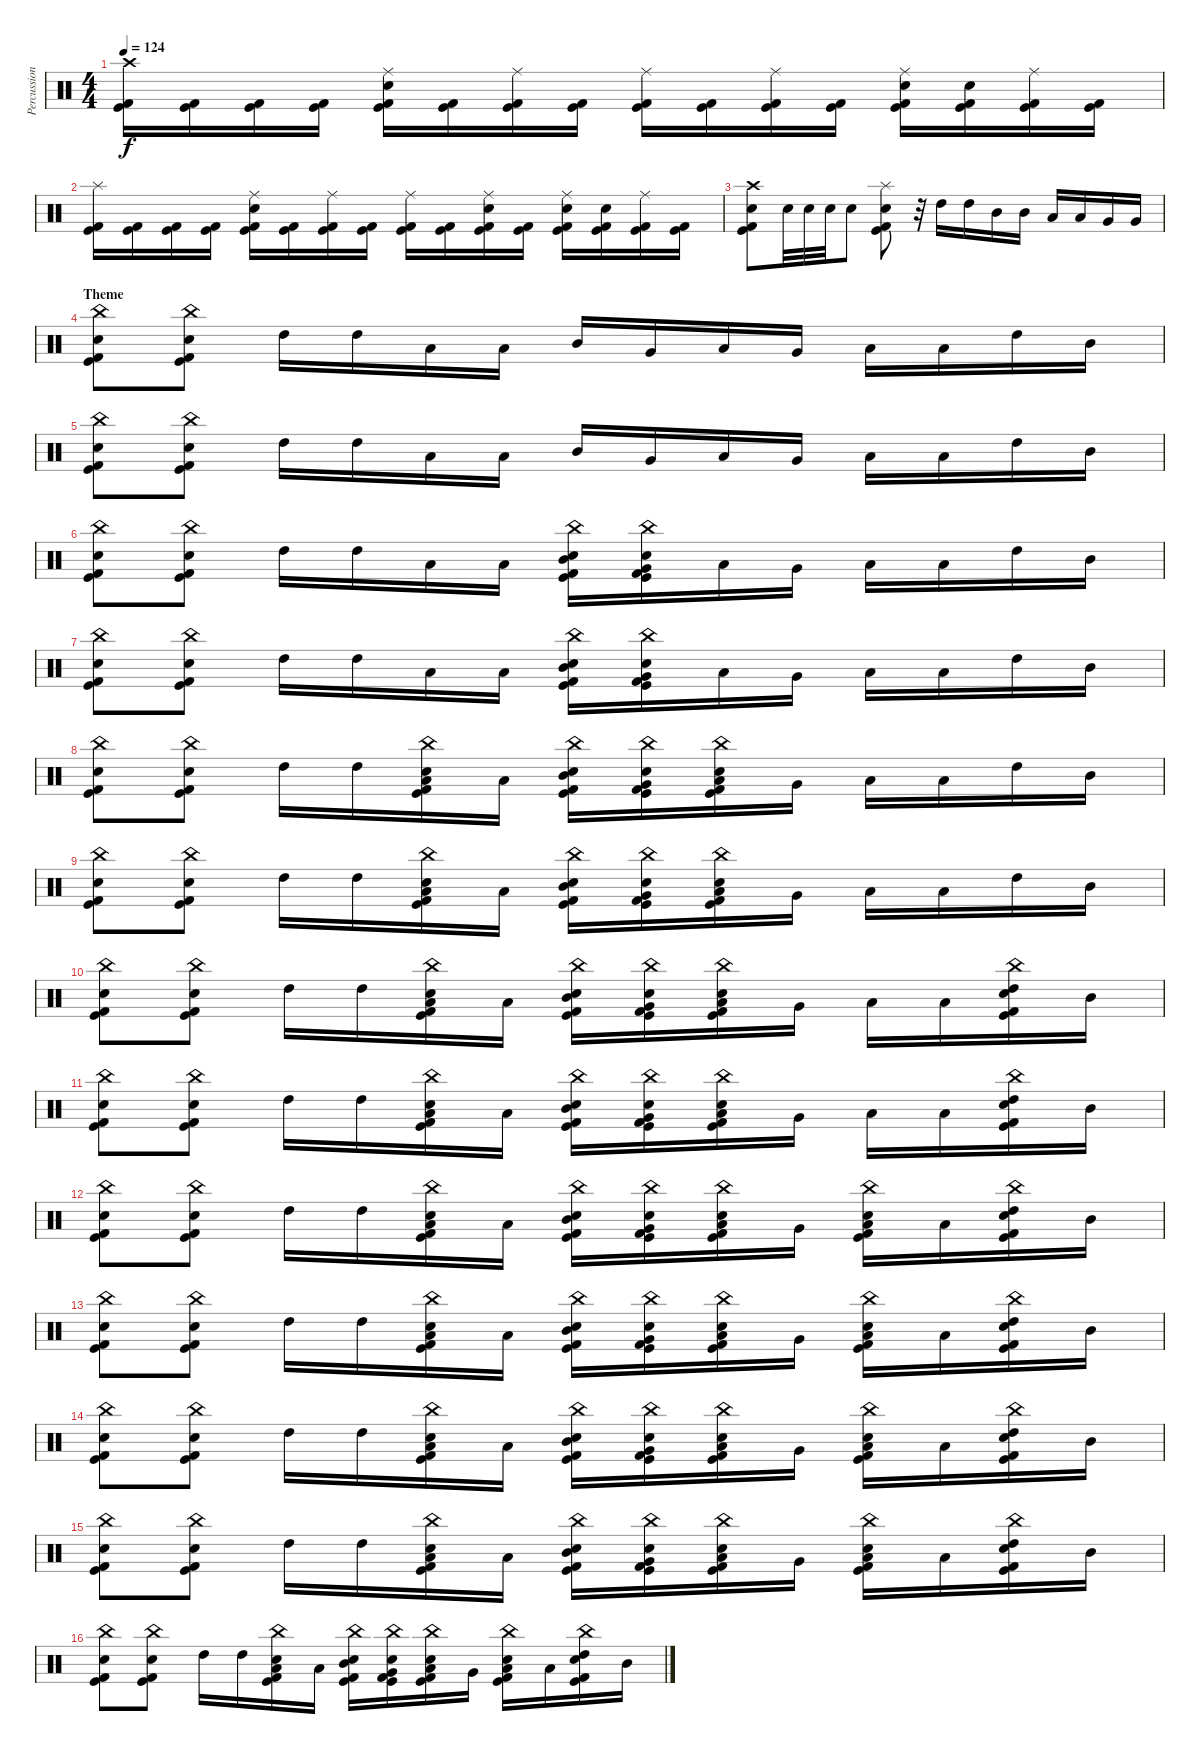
\track ("Percussion" "Percussion") {instrument percussion}
\staff {score}
\articulation defaults
\ts (4 4)
\tempo 124
\clef neutral
\ks c
("Crash high (hit)" "Kick (hit) 2" "Kick (hit)").16{dy f} ("Kick (hit) 2" "Kick (hit)").16 ("Kick (hit) 2" "Kick (hit)").16 ("Kick (hit) 2" "Kick (hit)").16 ("Ride (middle)" "Snare (hit) 2" "Kick (hit) 2" "Kick (hit)").16 ("Kick (hit) 2" "Kick (hit)").16 ("Ride (middle)" "Kick (hit) 2" "Kick (hit)").16 ("Kick (hit) 2" "Kick (hit)").16 ("Ride (middle)" "Kick (hit) 2" "Kick (hit)").16 ("Kick (hit) 2" "Kick (hit)").16 ("Ride (middle)" "Kick (hit) 2" "Kick (hit)").16 ("Kick (hit) 2" "Kick (hit)").16 ("Ride (middle)" "Snare (hit) 2" "Kick (hit) 2" "Kick (hit)").16 ("Snare (hit) 2" "Kick (hit) 2" "Kick (hit)").16 ("Ride (middle)" "Kick (hit) 2" "Kick (hit)").16 ("Kick (hit) 2" "Kick (hit)").16 |
("Splash (hit)" "Kick (hit) 2" "Kick (hit)").16 ("Kick (hit) 2" "Kick (hit)").16 ("Kick (hit) 2" "Kick (hit)").16 ("Kick (hit) 2" "Kick (hit)").16 ("Ride (middle)" "Snare (hit) 2" "Kick (hit) 2" "Kick (hit)").16 ("Kick (hit) 2" "Kick (hit)").16 ("Ride (middle)" "Kick (hit) 2" "Kick (hit)").16 ("Kick (hit) 2" "Kick (hit)").16 ("Ride (middle)" "Kick (hit) 2" "Kick (hit)").16 ("Kick (hit) 2" "Kick (hit)").16 ("Ride (middle)" "Snare (hit) 2" "Kick (hit) 2" "Kick (hit)").16 ("Kick (hit) 2" "Kick (hit)").16 ("Ride (middle)" "Snare (hit) 2" "Kick (hit) 2" "Kick (hit)").16 ("Snare (hit) 2" "Kick (hit) 2" "Kick (hit)").16 ("Ride (middle)" "Kick (hit) 2" "Kick (hit)").16 ("Kick (hit) 2" "Kick (hit)").16 |
("Crash high (hit)" "Snare (hit) 2" "Kick (hit) 2" "Kick (hit)").8 "Snare (hit) 2".32 "Snare (hit) 2".32 "Snare (hit) 2".32 "Snare (hit) 2".8 ("Splash (hit)" "Snare (hit) 2" "Kick (hit) 2" "Kick (hit)").8 r.32 "High Tom (hit)".16 "High Tom (hit)".16 "Mid Tom (hit)".16 "Mid Tom (hit)".16 "Low Tom (hit)".16 "Low Tom (hit)".16 "Very Low Tom (hit)".16 "Very Low Tom (hit)".16 |
\section ("" "Theme")
("China (hit)" "Snare (hit) 2" "Kick (hit) 2" "Kick (hit)").8 ("China (hit)" "Snare (hit) 2" "Kick (hit) 2" "Kick (hit)").8 "High Tom (hit)".16 "High Tom (hit)".16 "Low Tom (hit)".16 "Low Tom (hit)".16 "Mid Tom (hit)".16 "Very Low Tom (hit)".16 "Low Floor Tom (hit)".16 "Very Low Tom (hit)".16 "Low Tom (hit)".16 "Low Tom (hit)".16 "High Tom (hit)".16 "Mid Tom (hit)".16 |
("China (hit)" "Snare (hit) 2" "Kick (hit) 2" "Kick (hit)").8 ("China (hit)" "Snare (hit) 2" "Kick (hit) 2" "Kick (hit)").8 "High Tom (hit)".16 "High Tom (hit)".16 "Low Tom (hit)".16 "Low Tom (hit)".16 "Mid Tom (hit)".16 "Very Low Tom (hit)".16 "Low Floor Tom (hit)".16 "Very Low Tom (hit)".16 "Low Tom (hit)".16 "Low Tom (hit)".16 "High Tom (hit)".16 "Mid Tom (hit)".16 |
("China (hit)" "Snare (hit) 2" "Kick (hit) 2" "Kick (hit)").8 ("China (hit)" "Snare (hit) 2" "Kick (hit) 2" "Kick (hit)").8 "High Tom (hit)".16 "High Tom (hit)".16 "Low Tom (hit)".16 "Low Tom (hit)".16 ("China (hit)" "Snare (hit) 2" "Mid Tom (hit)" "Kick (hit) 2" "Kick (hit)").16 ("China (hit)" "Snare (hit) 2" "Very Low Tom (hit)" "Kick (hit) 2" "Kick (hit)").16 "Low Floor Tom (hit)".16 "Very Low Tom (hit)".16 "Low Tom (hit)".16 "Low Tom (hit)".16 "High Tom (hit)".16 "Mid Tom (hit)".16 |
("China (hit)" "Snare (hit) 2" "Kick (hit) 2" "Kick (hit)").8 ("China (hit)" "Snare (hit) 2" "Kick (hit) 2" "Kick (hit)").8 "High Tom (hit)".16 "High Tom (hit)".16 "Low Tom (hit)".16 "Low Tom (hit)".16 ("China (hit)" "Snare (hit) 2" "Mid Tom (hit)" "Kick (hit) 2" "Kick (hit)").16 ("China (hit)" "Snare (hit) 2" "Very Low Tom (hit)" "Kick (hit) 2" "Kick (hit)").16 "Low Floor Tom (hit)".16 "Very Low Tom (hit)".16 "Low Tom (hit)".16 "Low Tom (hit)".16 "High Tom (hit)".16 "Mid Tom (hit)".16 |
("China (hit)" "Snare (hit) 2" "Kick (hit) 2" "Kick (hit)").8 ("China (hit)" "Snare (hit) 2" "Kick (hit) 2" "Kick (hit)").8 "High Tom (hit)".16 "High Tom (hit)".16 ("China (hit)" "Snare (hit) 2" "Low Tom (hit)" "Kick (hit) 2" "Kick (hit)").16 "Low Tom (hit)".16 ("China (hit)" "Snare (hit) 2" "Mid Tom (hit)" "Kick (hit) 2" "Kick (hit)").16 ("China (hit)" "Snare (hit) 2" "Very Low Tom (hit)" "Kick (hit) 2" "Kick (hit)").16 ("China (hit)" "Snare (hit) 2" "Low Floor Tom (hit)" "Kick (hit) 2" "Kick (hit)").16 "Very Low Tom (hit)".16 "Low Tom (hit)".16 "Low Tom (hit)".16 "High Tom (hit)".16 "Mid Tom (hit)".16 |
("China (hit)" "Snare (hit) 2" "Kick (hit) 2" "Kick (hit)").8 ("China (hit)" "Snare (hit) 2" "Kick (hit) 2" "Kick (hit)").8 "High Tom (hit)".16 "High Tom (hit)".16 ("China (hit)" "Snare (hit) 2" "Low Tom (hit)" "Kick (hit) 2" "Kick (hit)").16 "Low Tom (hit)".16 ("China (hit)" "Snare (hit) 2" "Mid Tom (hit)" "Kick (hit) 2" "Kick (hit)").16 ("China (hit)" "Snare (hit) 2" "Very Low Tom (hit)" "Kick (hit) 2" "Kick (hit)").16 ("China (hit)" "Snare (hit) 2" "Low Floor Tom (hit)" "Kick (hit) 2" "Kick (hit)").16 "Very Low Tom (hit)".16 "Low Tom (hit)".16 "Low Tom (hit)".16 "High Tom (hit)".16 "Mid Tom (hit)".16 |
("China (hit)" "Snare (hit) 2" "Kick (hit) 2" "Kick (hit)").8 ("China (hit)" "Snare (hit) 2" "Kick (hit) 2" "Kick (hit)").8 "High Tom (hit)".16 "High Tom (hit)".16 ("China (hit)" "Snare (hit) 2" "Low Tom (hit)" "Kick (hit) 2" "Kick (hit)").16 "Low Tom (hit)".16 ("China (hit)" "Snare (hit) 2" "Mid Tom (hit)" "Kick (hit) 2" "Kick (hit)").16 ("China (hit)" "Snare (hit) 2" "Very Low Tom (hit)" "Kick (hit) 2" "Kick (hit)").16 ("China (hit)" "Snare (hit) 2" "Low Floor Tom (hit)" "Kick (hit) 2" "Kick (hit)").16 "Very Low Tom (hit)".16 "Low Tom (hit)".16 "Low Tom (hit)".16 ("China (hit)" "Snare (hit) 2" "High Tom (hit)" "Kick (hit) 2" "Kick (hit)").16 "Mid Tom (hit)".16 |
("China (hit)" "Snare (hit) 2" "Kick (hit) 2" "Kick (hit)").8 ("China (hit)" "Snare (hit) 2" "Kick (hit) 2" "Kick (hit)").8 "High Tom (hit)".16 "High Tom (hit)".16 ("China (hit)" "Snare (hit) 2" "Low Tom (hit)" "Kick (hit) 2" "Kick (hit)").16 "Low Tom (hit)".16 ("China (hit)" "Snare (hit) 2" "Mid Tom (hit)" "Kick (hit) 2" "Kick (hit)").16 ("China (hit)" "Snare (hit) 2" "Very Low Tom (hit)" "Kick (hit) 2" "Kick (hit)").16 ("China (hit)" "Snare (hit) 2" "Low Floor Tom (hit)" "Kick (hit) 2" "Kick (hit)").16 "Very Low Tom (hit)".16 "Low Tom (hit)".16 "Low Tom (hit)".16 ("China (hit)" "Snare (hit) 2" "High Tom (hit)" "Kick (hit) 2" "Kick (hit)").16 "Mid Tom (hit)".16 |
("China (hit)" "Snare (hit) 2" "Kick (hit) 2" "Kick (hit)").8 ("China (hit)" "Snare (hit) 2" "Kick (hit) 2" "Kick (hit)").8 "High Tom (hit)".16 "High Tom (hit)".16 ("China (hit)" "Snare (hit) 2" "Low Tom (hit)" "Kick (hit) 2" "Kick (hit)").16 "Low Tom (hit)".16 ("China (hit)" "Snare (hit) 2" "Mid Tom (hit)" "Kick (hit) 2" "Kick (hit)").16 ("China (hit)" "Snare (hit) 2" "Very Low Tom (hit)" "Kick (hit) 2" "Kick (hit)").16 ("China (hit)" "Snare (hit) 2" "Low Floor Tom (hit)" "Kick (hit) 2" "Kick (hit)").16 "Very Low Tom (hit)".16 ("China (hit)" "Snare (hit) 2" "Low Tom (hit)" "Kick (hit) 2" "Kick (hit)").16 "Low Tom (hit)".16 ("China (hit)" "Snare (hit) 2" "High Tom (hit)" "Kick (hit) 2" "Kick (hit)").16 "Mid Tom (hit)".16 |
("China (hit)" "Snare (hit) 2" "Kick (hit) 2" "Kick (hit)").8 ("China (hit)" "Snare (hit) 2" "Kick (hit) 2" "Kick (hit)").8 "High Tom (hit)".16 "High Tom (hit)".16 ("China (hit)" "Snare (hit) 2" "Low Tom (hit)" "Kick (hit) 2" "Kick (hit)").16 "Low Tom (hit)".16 ("China (hit)" "Snare (hit) 2" "Mid Tom (hit)" "Kick (hit) 2" "Kick (hit)").16 ("China (hit)" "Snare (hit) 2" "Very Low Tom (hit)" "Kick (hit) 2" "Kick (hit)").16 ("China (hit)" "Snare (hit) 2" "Low Floor Tom (hit)" "Kick (hit) 2" "Kick (hit)").16 "Very Low Tom (hit)".16 ("China (hit)" "Snare (hit) 2" "Low Tom (hit)" "Kick (hit) 2" "Kick (hit)").16 "Low Tom (hit)".16 ("China (hit)" "Snare (hit) 2" "High Tom (hit)" "Kick (hit) 2" "Kick (hit)").16 "Mid Tom (hit)".16 |
("China (hit)" "Snare (hit) 2" "Kick (hit) 2" "Kick (hit)").8 ("China (hit)" "Snare (hit) 2" "Kick (hit) 2" "Kick (hit)").8 "High Tom (hit)".16 "High Tom (hit)".16 ("China (hit)" "Snare (hit) 2" "Low Tom (hit)" "Kick (hit) 2" "Kick (hit)").16 "Low Tom (hit)".16 ("China (hit)" "Snare (hit) 2" "Mid Tom (hit)" "Kick (hit) 2" "Kick (hit)").16 ("China (hit)" "Snare (hit) 2" "Very Low Tom (hit)" "Kick (hit) 2" "Kick (hit)").16 ("China (hit)" "Snare (hit) 2" "Low Floor Tom (hit)" "Kick (hit) 2" "Kick (hit)").16 "Very Low Tom (hit)".16 ("China (hit)" "Snare (hit) 2" "Low Tom (hit)" "Kick (hit) 2" "Kick (hit)").16 "Low Tom (hit)".16 ("China (hit)" "Snare (hit) 2" "High Tom (hit)" "Kick (hit) 2" "Kick (hit)").16 "Mid Tom (hit)".16 |
("China (hit)" "Snare (hit) 2" "Kick (hit) 2" "Kick (hit)").8 ("China (hit)" "Snare (hit) 2" "Kick (hit) 2" "Kick (hit)").8 "High Tom (hit)".16 "High Tom (hit)".16 ("China (hit)" "Snare (hit) 2" "Low Tom (hit)" "Kick (hit) 2" "Kick (hit)").16 "Low Tom (hit)".16 ("China (hit)" "Snare (hit) 2" "Mid Tom (hit)" "Kick (hit) 2" "Kick (hit)").16 ("China (hit)" "Snare (hit) 2" "Very Low Tom (hit)" "Kick (hit) 2" "Kick (hit)").16 ("China (hit)" "Snare (hit) 2" "Low Floor Tom (hit)" "Kick (hit) 2" "Kick (hit)").16 "Very Low Tom (hit)".16 ("China (hit)" "Snare (hit) 2" "Low Tom (hit)" "Kick (hit) 2" "Kick (hit)").16 "Low Tom (hit)".16 ("China (hit)" "Snare (hit) 2" "High Tom (hit)" "Kick (hit) 2" "Kick (hit)").16 "Mid Tom (hit)".16 |
("China (hit)" "Snare (hit) 2" "Kick (hit) 2" "Kick (hit)").8 ("China (hit)" "Snare (hit) 2" "Kick (hit) 2" "Kick (hit)").8 "High Tom (hit)".16 "High Tom (hit)".16 ("China (hit)" "Snare (hit) 2" "Low Tom (hit)" "Kick (hit) 2" "Kick (hit)").16 "Low Tom (hit)".16 ("China (hit)" "Snare (hit) 2" "Mid Tom (hit)" "Kick (hit) 2" "Kick (hit)").16 ("China (hit)" "Snare (hit) 2" "Very Low Tom (hit)" "Kick (hit) 2" "Kick (hit)").16 ("China (hit)" "Snare (hit) 2" "Low Floor Tom (hit)" "Kick (hit) 2" "Kick (hit)").16 "Very Low Tom (hit)".16 ("China (hit)" "Snare (hit) 2" "Low Tom (hit)" "Kick (hit) 2" "Kick (hit)").16 "Low Tom (hit)".16 ("China (hit)" "Snare (hit) 2" "High Tom (hit)" "Kick (hit) 2" "Kick (hit)").16 "Mid Tom (hit)".16
